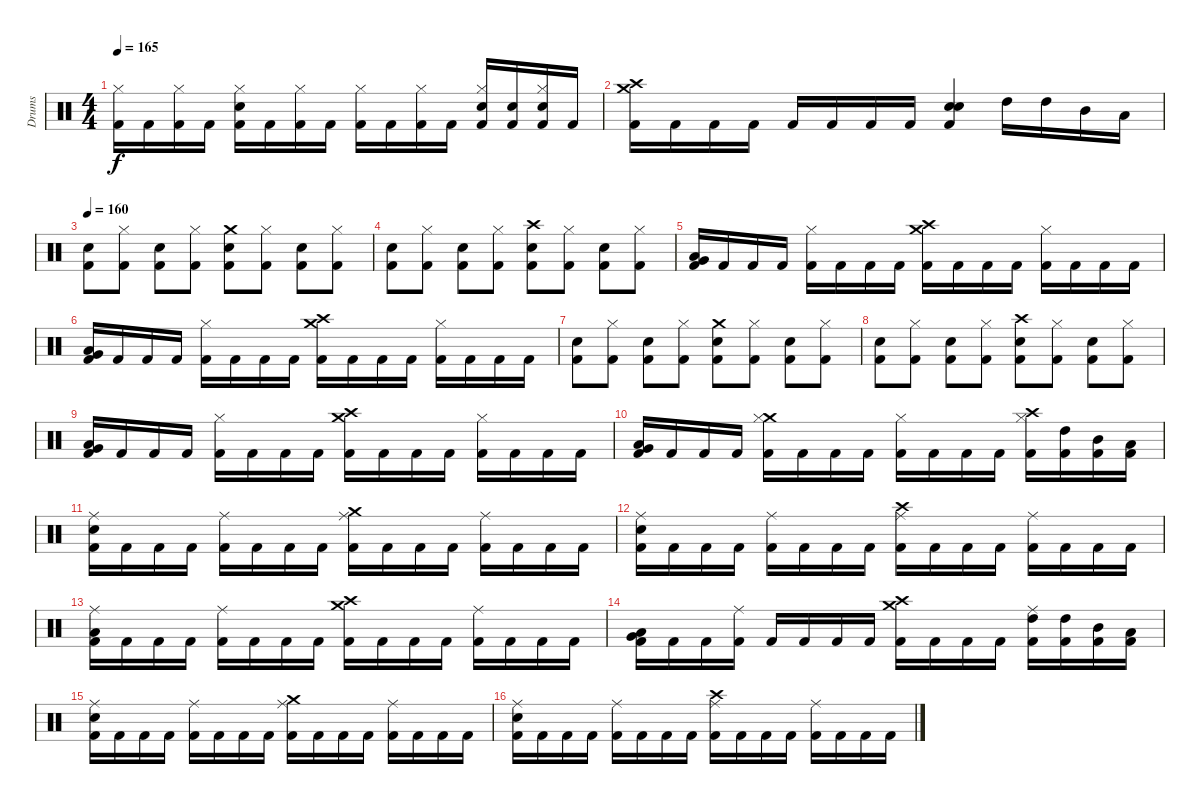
\track ("Drums" "Drums") {instrument percussion}
\staff {score}
\articulation defaults
\ts (4 4)
\tempo 165
\clef neutral
\ks c
("Kick (hit) 2" "Hi-Hat (closed)").16{dy f} "Kick (hit) 2".16 ("Kick (hit) 2" "Hi-Hat (closed)").16 "Kick (hit) 2".16 ("Kick (hit) 2" "Hi-Hat (closed)" "Snare (hit) 2").16 "Kick (hit) 2".16 ("Kick (hit) 2" "Hi-Hat (closed)").16 "Kick (hit) 2".16 ("Kick (hit) 2" "Hi-Hat (closed)").16 "Kick (hit) 2".16 ("Kick (hit) 2" "Hi-Hat (closed)").16 "Kick (hit) 2".16 ("Kick (hit) 2" "Hi-Hat (closed)" "Snare (hit) 2").16 ("Kick (hit) 2" "Snare (hit) 2").16 ("Kick (hit) 2" "Hi-Hat (closed)" "Snare (hit) 2").16 "Kick (hit) 2".16 |
("Kick (hit) 2" "Crash high (hit)" "Crash medium (hit)").16 "Kick (hit) 2".16 "Kick (hit) 2".16 "Kick (hit) 2".16 "Kick (hit) 2".16 "Kick (hit) 2".16 "Kick (hit) 2".16 "Kick (hit) 2".16 ("Kick (hit) 2" "Snare (hit) 2" "Snare (hit) 2").4 "High Tom (hit)".16 "High Tom (hit)".16 "Mid Tom (hit)".16 "Low Tom (hit)".16 |
\tempo 160
("Kick (hit) 2" "Snare (hit) 2").8 ("Kick (hit) 2" "Hi-Hat (closed)").8 ("Kick (hit) 2" "Snare (hit) 2").8 ("Kick (hit) 2" "Hi-Hat (closed)").8 ("Kick (hit) 2" "Crash medium (hit)" "Snare (hit) 2").8 ("Kick (hit) 2" "Hi-Hat (closed)").8 ("Kick (hit) 2" "Snare (hit) 2").8 ("Kick (hit) 2" "Hi-Hat (closed)").8 |
("Kick (hit) 2" "Snare (hit) 2").8 ("Kick (hit) 2" "Hi-Hat (closed)").8 ("Kick (hit) 2" "Snare (hit) 2").8 ("Kick (hit) 2" "Hi-Hat (closed)").8 ("Kick (hit) 2" "Crash high (hit)" "Snare (hit) 2").8 ("Kick (hit) 2" "Hi-Hat (closed)").8 ("Kick (hit) 2" "Snare (hit) 2").8 ("Kick (hit) 2" "Hi-Hat (closed)").8 |
("Kick (hit) 2" "Very Low Tom (hit)" "Low Tom (hit)").16 "Kick (hit) 2".16 "Kick (hit) 2".16 "Kick (hit) 2".16 ("Kick (hit) 2" "Hi-Hat (closed)").16 "Kick (hit) 2".16 "Kick (hit) 2".16 "Kick (hit) 2".16 ("Kick (hit) 2" "Crash high (hit)" "Crash medium (hit)").16 "Kick (hit) 2".16 "Kick (hit) 2".16 "Kick (hit) 2".16 ("Kick (hit) 2" "Hi-Hat (closed)").16 "Kick (hit) 2".16 "Kick (hit) 2".16 "Kick (hit) 2".16 |
("Kick (hit) 2" "Very Low Tom (hit)" "Low Tom (hit)").16 "Kick (hit) 2".16 "Kick (hit) 2".16 "Kick (hit) 2".16 ("Kick (hit) 2" "Hi-Hat (closed)").16 "Kick (hit) 2".16 "Kick (hit) 2".16 "Kick (hit) 2".16 ("Kick (hit) 2" "Crash medium (hit)" "Crash high (hit)").16 "Kick (hit) 2".16 "Kick (hit) 2".16 "Kick (hit) 2".16 ("Kick (hit) 2" "Hi-Hat (closed)").16 "Kick (hit) 2".16 "Kick (hit) 2".16 "Kick (hit) 2".16 |
("Kick (hit) 2" "Snare (hit) 2").8 ("Kick (hit) 2" "Hi-Hat (closed)").8 ("Kick (hit) 2" "Snare (hit) 2").8 ("Kick (hit) 2" "Hi-Hat (closed)").8 ("Kick (hit) 2" "Crash medium (hit)" "Snare (hit) 2").8 ("Kick (hit) 2" "Hi-Hat (closed)").8 ("Kick (hit) 2" "Snare (hit) 2").8 ("Kick (hit) 2" "Hi-Hat (closed)").8 |
("Kick (hit) 2" "Snare (hit) 2").8 ("Kick (hit) 2" "Hi-Hat (closed)").8 ("Kick (hit) 2" "Snare (hit) 2").8 ("Kick (hit) 2" "Hi-Hat (closed)").8 ("Kick (hit) 2" "Crash high (hit)" "Snare (hit) 2").8 ("Kick (hit) 2" "Hi-Hat (closed)").8 ("Kick (hit) 2" "Snare (hit) 2").8 ("Kick (hit) 2" "Hi-Hat (closed)").8 |
("Kick (hit) 2" "Very Low Tom (hit)" "Low Tom (hit)").16 "Kick (hit) 2".16 "Kick (hit) 2".16 "Kick (hit) 2".16 ("Kick (hit) 2" "Hi-Hat (closed)").16 "Kick (hit) 2".16 "Kick (hit) 2".16 "Kick (hit) 2".16 ("Kick (hit) 2" "Crash high (hit)" "Crash medium (hit)").16 "Kick (hit) 2".16 "Kick (hit) 2".16 "Kick (hit) 2".16 ("Kick (hit) 2" "Hi-Hat (closed)").16 "Kick (hit) 2".16 "Kick (hit) 2".16 "Kick (hit) 2".16 |
("Kick (hit) 2" "Very Low Tom (hit)" "Low Tom (hit)").16 "Kick (hit) 2".16 "Kick (hit) 2".16 "Kick (hit) 2".16 ("Kick (hit) 2" "Crash medium (hit)" "Hi-Hat (closed)").16 "Kick (hit) 2".16 "Kick (hit) 2".16 "Kick (hit) 2".16 ("Kick (hit) 2" "Hi-Hat (closed)").16 "Kick (hit) 2".16 "Kick (hit) 2".16 "Kick (hit) 2".16 ("Kick (hit) 2" "Crash high (hit)" "Hi-Hat (closed)").16 ("Kick (hit) 2" "High Tom (hit)").16 ("Kick (hit) 2" "Mid Tom (hit)").16 ("Kick (hit) 2" "Low Tom (hit)").16 |
("Kick (hit) 2" "Snare (hit) 2" "Ride (middle)").16 "Kick (hit) 2".16 "Kick (hit) 2".16 "Kick (hit) 2".16 ("Kick (hit) 2" "Ride (middle)").16 "Kick (hit) 2".16 "Kick (hit) 2".16 "Kick (hit) 2".16 ("Kick (hit) 2" "Crash medium (hit)" "Ride (middle)").16 "Kick (hit) 2".16 "Kick (hit) 2".16 "Kick (hit) 2".16 ("Kick (hit) 2" "Ride (middle)").16 "Kick (hit) 2".16 "Kick (hit) 2".16 "Kick (hit) 2".16 |
("Kick (hit) 2" "Snare (hit) 2" "Ride (middle)").16 "Kick (hit) 2".16 "Kick (hit) 2".16 "Kick (hit) 2".16 ("Kick (hit) 2" "Ride (middle)").16 "Kick (hit) 2".16 "Kick (hit) 2".16 "Kick (hit) 2".16 ("Kick (hit) 2" "Crash high (hit)" "Ride (middle)").16 "Kick (hit) 2".16 "Kick (hit) 2".16 "Kick (hit) 2".16 ("Kick (hit) 2" "Ride (middle)").16 "Kick (hit) 2".16 "Kick (hit) 2".16 "Kick (hit) 2".16 |
("Kick (hit) 2" "Ride (middle)" "Low Tom (hit)").16 "Kick (hit) 2".16 "Kick (hit) 2".16 "Kick (hit) 2".16 ("Kick (hit) 2" "Ride (middle)").16 "Kick (hit) 2".16 "Kick (hit) 2".16 "Kick (hit) 2".16 ("Kick (hit) 2" "Crash high (hit)" "Crash medium (hit)").16 "Kick (hit) 2".16 "Kick (hit) 2".16 "Kick (hit) 2".16 ("Kick (hit) 2" "Ride (middle)").16 "Kick (hit) 2".16 "Kick (hit) 2".16 "Kick (hit) 2".16 |
("Kick (hit) 2" "Very Low Tom (hit)" "Low Tom (hit)").16 "Kick (hit) 2".16 "Kick (hit) 2".16 ("Kick (hit) 2" "Ride (middle)").16 "Kick (hit) 2".16 "Kick (hit) 2".16 "Kick (hit) 2".16 "Kick (hit) 2".16 ("Kick (hit) 2" "Crash medium (hit)" "Crash high (hit)").16 "Kick (hit) 2".16 "Kick (hit) 2".16 "Kick (hit) 2".16 ("Kick (hit) 2" "High Tom (hit)" "Ride (middle)").16 ("Kick (hit) 2" "High Tom (hit)").16 ("Kick (hit) 2" "Mid Tom (hit)").16 ("Kick (hit) 2" "Low Tom (hit)").16 |
("Kick (hit) 2" "Snare (hit) 2" "Ride (middle)").16 "Kick (hit) 2".16 "Kick (hit) 2".16 "Kick (hit) 2".16 ("Kick (hit) 2" "Ride (middle)").16 "Kick (hit) 2".16 "Kick (hit) 2".16 "Kick (hit) 2".16 ("Kick (hit) 2" "Crash medium (hit)" "Ride (middle)").16 "Kick (hit) 2".16 "Kick (hit) 2".16 "Kick (hit) 2".16 ("Kick (hit) 2" "Ride (middle)").16 "Kick (hit) 2".16 "Kick (hit) 2".16 "Kick (hit) 2".16 |
("Kick (hit) 2" "Snare (hit) 2" "Ride (middle)").16 "Kick (hit) 2".16 "Kick (hit) 2".16 "Kick (hit) 2".16 ("Kick (hit) 2" "Ride (middle)").16 "Kick (hit) 2".16 "Kick (hit) 2".16 "Kick (hit) 2".16 ("Kick (hit) 2" "Crash high (hit)" "Ride (middle)").16 "Kick (hit) 2".16 "Kick (hit) 2".16 "Kick (hit) 2".16 ("Kick (hit) 2" "Ride (middle)").16 "Kick (hit) 2".16 "Kick (hit) 2".16 "Kick (hit) 2".16
